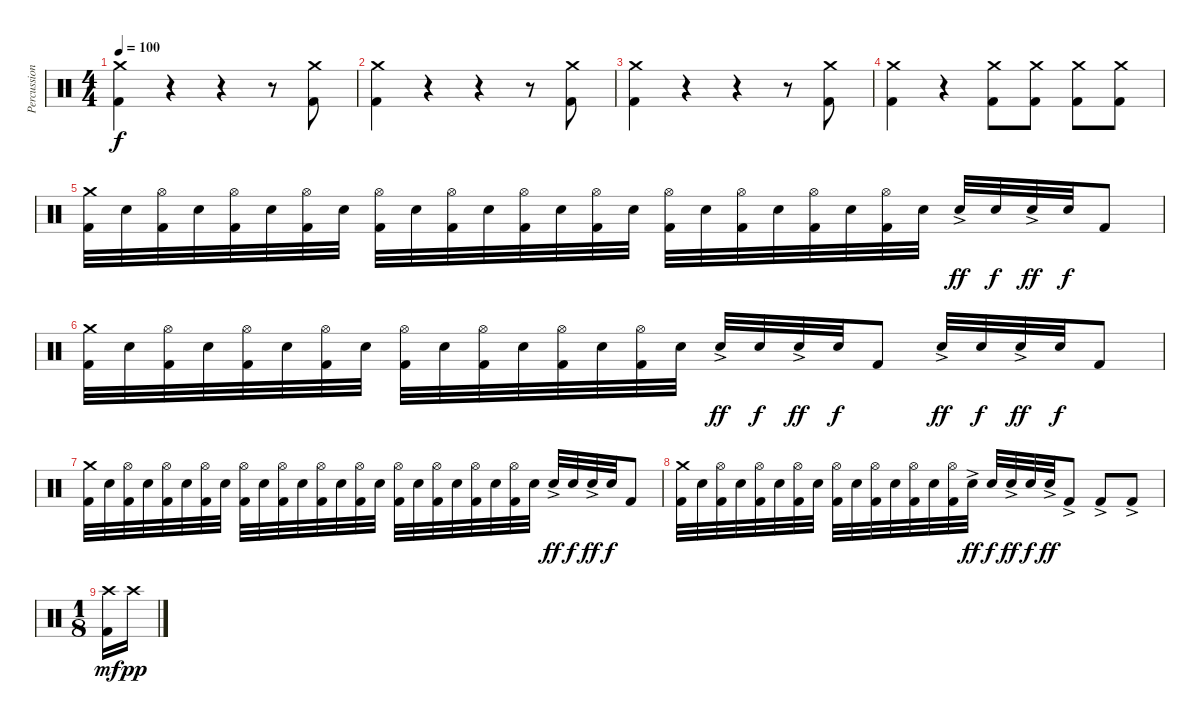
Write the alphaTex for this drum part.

\track ("Percussion" "Percussion") {instrument percussion}
\staff {score}
\articulation defaults
\ts (4 4)
\tempo 100
\clef neutral
\ks c
("Crash medium (hit)" "Kick (hit) 2").4{dy f} r.4 r.4 r.8 ("Crash medium (hit)" "Kick (hit) 2").8 |
("Crash medium (hit)" "Kick (hit) 2").4 r.4 r.4 r.8 ("Crash medium (hit)" "Kick (hit) 2").8 |
("Crash medium (hit)" "Kick (hit) 2").4 r.4 r.4 r.8 ("Crash medium (hit)" "Kick (hit) 2").8 |
("Crash medium (hit)" "Kick (hit) 2").4 r.4 ("Crash medium (hit)" "Kick (hit) 2").8 ("Crash medium (hit)" "Kick (hit) 2").8 ("Crash medium (hit)" "Kick (hit) 2").8 ("Crash medium (hit)" "Kick (hit) 2").8 |
("Crash medium (hit)" "Kick (hit) 2").32 "Electric Snare (hit)".32 ("Hi-Hat (open)" "Kick (hit) 2").32 "Electric Snare (hit)".32 ("Hi-Hat (open)" "Kick (hit) 2").32 "Electric Snare (hit)".32 ("Hi-Hat (open)" "Kick (hit) 2").32 "Electric Snare (hit)".32 ("Hi-Hat (open)" "Kick (hit) 2").32 "Electric Snare (hit)".32 ("Hi-Hat (open)" "Kick (hit) 2").32 "Electric Snare (hit)".32 ("Hi-Hat (open)" "Kick (hit) 2").32 "Electric Snare (hit)".32 ("Hi-Hat (open)" "Kick (hit) 2").32 "Electric Snare (hit)".32 ("Hi-Hat (open)" "Kick (hit) 2").32 "Electric Snare (hit)".32 ("Hi-Hat (open)" "Kick (hit) 2").32 "Electric Snare (hit)".32 ("Hi-Hat (open)" "Kick (hit) 2").32 "Electric Snare (hit)".32 ("Hi-Hat (open)" "Kick (hit) 2").32 "Electric Snare (hit)".32 "Electric Snare (hit)"{ac}.32{dy ff} "Electric Snare (hit)".32{dy f} "Electric Snare (hit)"{ac}.32{dy ff} "Electric Snare (hit)".32{dy f} "Kick (hit) 2".8 |
("Crash medium (hit)" "Kick (hit) 2").32 "Electric Snare (hit)".32 ("Hi-Hat (open)" "Kick (hit) 2").32 "Electric Snare (hit)".32 ("Hi-Hat (open)" "Kick (hit) 2").32 "Electric Snare (hit)".32 ("Hi-Hat (open)" "Kick (hit) 2").32 "Electric Snare (hit)".32 ("Hi-Hat (open)" "Kick (hit) 2").32 "Electric Snare (hit)".32 ("Hi-Hat (open)" "Kick (hit) 2").32 "Electric Snare (hit)".32 ("Hi-Hat (open)" "Kick (hit) 2").32 "Electric Snare (hit)".32 ("Hi-Hat (open)" "Kick (hit) 2").32 "Electric Snare (hit)".32 "Electric Snare (hit)"{ac}.32{dy ff} "Electric Snare (hit)".32{dy f} "Electric Snare (hit)"{ac}.32{dy ff} "Electric Snare (hit)".32{dy f} "Kick (hit) 2".8 "Electric Snare (hit)"{ac}.32{dy ff} "Electric Snare (hit)".32{dy f} "Electric Snare (hit)"{ac}.32{dy ff} "Electric Snare (hit)".32{dy f} "Kick (hit) 2".8 |
("Crash medium (hit)" "Kick (hit) 2").32 "Electric Snare (hit)".32 ("Hi-Hat (open)" "Kick (hit) 2").32 "Electric Snare (hit)".32 ("Hi-Hat (open)" "Kick (hit) 2").32 "Electric Snare (hit)".32 ("Hi-Hat (open)" "Kick (hit) 2").32 "Electric Snare (hit)".32 ("Hi-Hat (open)" "Kick (hit) 2").32 "Electric Snare (hit)".32 ("Hi-Hat (open)" "Kick (hit) 2").32 "Electric Snare (hit)".32 ("Hi-Hat (open)" "Kick (hit) 2").32 "Electric Snare (hit)".32 ("Hi-Hat (open)" "Kick (hit) 2").32 "Electric Snare (hit)".32 ("Hi-Hat (open)" "Kick (hit) 2").32 "Electric Snare (hit)".32 ("Hi-Hat (open)" "Kick (hit) 2").32 "Electric Snare (hit)".32 ("Hi-Hat (open)" "Kick (hit) 2").32 "Electric Snare (hit)".32 ("Hi-Hat (open)" "Kick (hit) 2").32 "Electric Snare (hit)".32 "Electric Snare (hit)"{ac}.32{dy ff} "Electric Snare (hit)".32{dy f} "Electric Snare (hit)"{ac}.32{dy ff} "Electric Snare (hit)".32{dy f} "Kick (hit) 2".8 |
("Crash medium (hit)" "Kick (hit) 2").32 "Electric Snare (hit)".32 ("Hi-Hat (open)" "Kick (hit) 2").32 "Electric Snare (hit)".32 ("Hi-Hat (open)" "Kick (hit) 2").32 "Electric Snare (hit)".32 ("Hi-Hat (open)" "Kick (hit) 2").32 "Electric Snare (hit)".32 ("Hi-Hat (open)" "Kick (hit) 2").32 "Electric Snare (hit)".32 ("Hi-Hat (open)" "Kick (hit) 2").32 "Electric Snare (hit)".32 ("Hi-Hat (open)" "Kick (hit) 2").32 "Electric Snare (hit)".32 ("Hi-Hat (open)" "Kick (hit) 2").32 "Electric Snare (hit)"{ac}.32{dy ff} "Electric Snare (hit)".32{dy f} "Electric Snare (hit)"{ac}.32{dy ff} "Electric Snare (hit)".32{dy f} "Electric Snare (hit)"{ac}.32{dy ff} "Kick (hit) 2"{ac}.8 "Kick (hit) 2"{ac}.8 "Kick (hit) 2"{ac}.8 |
\ts (1 8)
("Crash high (hit)" "Kick (hit) 2").16{dy mf} "Crash high (hit)".16{dy pp}
